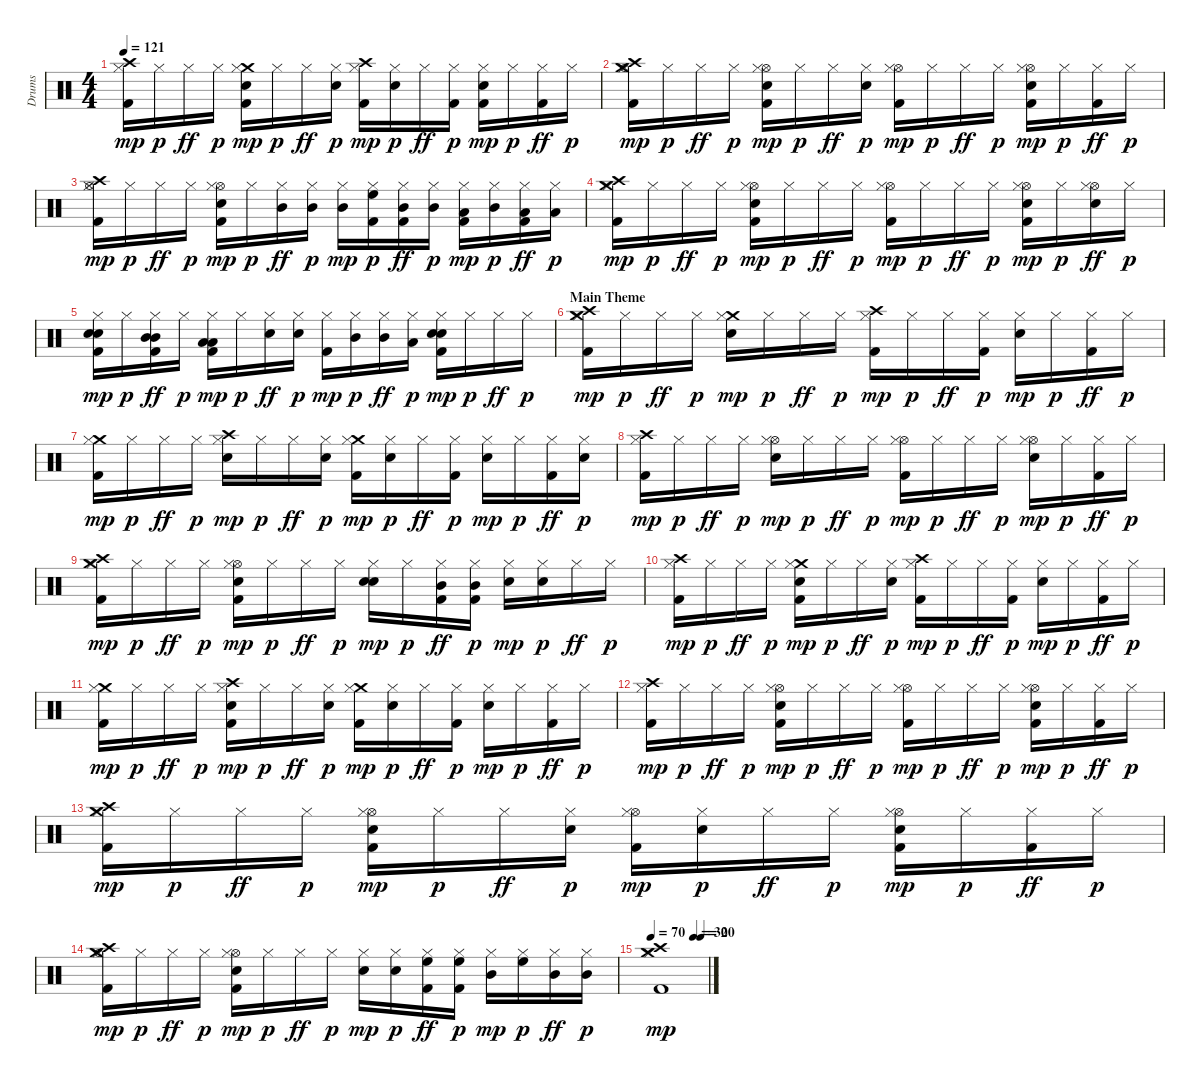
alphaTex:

\track ("Drums" "Drums") {instrument percussion}
\staff {score}
\articulation defaults
\ts (4 4)
\tempo 121
\clef neutral
\ks c
("Crash high (hit)" "Kick (hit) 2" "Hi-Hat (closed)").16{dy mp} "Hi-Hat (closed)".16{dy p} "Hi-Hat (closed)".16{dy ff} "Hi-Hat (closed)".16{dy p} ("Crash medium (hit)" "Kick (hit) 2" "Electric Snare (hit)" "Hi-Hat (closed)").16{dy mp} "Hi-Hat (closed)".16{dy p} "Hi-Hat (closed)".16{dy ff} ("Electric Snare (hit)" "Hi-Hat (closed)").16{dy p} ("Crash high (hit)" "Kick (hit) 2" "Hi-Hat (closed)").16{dy mp} ("Electric Snare (hit)" "Hi-Hat (closed)").16{dy p} "Hi-Hat (closed)".16{dy ff} ("Kick (hit) 2" "Hi-Hat (closed)").16{dy p} ("Kick (hit) 2" "Electric Snare (hit)" "Hi-Hat (closed)").16{dy mp} "Hi-Hat (closed)".16{dy p} ("Kick (hit) 2" "Hi-Hat (closed)").16{dy ff} "Hi-Hat (closed)".16{dy p} |
("Kick (hit) 2" "Hi-Hat (open)" "Crash high (hit)" "Crash medium (hit)" "Hi-Hat (closed)").16{dy mp} "Hi-Hat (closed)".16{dy p} "Hi-Hat (closed)".16{dy ff} "Hi-Hat (closed)".16{dy p} ("Hi-Hat (open)" "Kick (hit) 2" "Electric Snare (hit)" "Hi-Hat (closed)").16{dy mp} "Hi-Hat (closed)".16{dy p} "Hi-Hat (closed)".16{dy ff} ("Electric Snare (hit)" "Hi-Hat (closed)").16{dy p} ("Hi-Hat (open)" "Kick (hit) 2" "Hi-Hat (closed)").16{dy mp} "Hi-Hat (closed)".16{dy p} "Hi-Hat (closed)".16{dy ff} "Hi-Hat (closed)".16{dy p} ("Hi-Hat (open)" "Kick (hit) 2" "Electric Snare (hit)" "Hi-Hat (closed)").16{dy mp} "Hi-Hat (closed)".16{dy p} ("Kick (hit) 2" "Hi-Hat (closed)").16{dy ff} "Hi-Hat (closed)".16{dy p} |
("Hi-Hat (open)" "Kick (hit) 2" "Crash high (hit)" "Hi-Hat (closed)").16{dy mp} "Hi-Hat (closed)".16{dy p} "Hi-Hat (closed)".16{dy ff} "Hi-Hat (closed)".16{dy p} ("Hi-Hat (open)" "Kick (hit) 2" "Electric Snare (hit)" "Hi-Hat (closed)").16{dy mp} "Hi-Hat (closed)".16{dy p} ("Mid Tom (hit)" "Hi-Hat (closed)").16{dy ff} ("Mid Tom (hit)" "Hi-Hat (closed)").16{dy p} ("Mid Tom (hit)" "Hi-Hat (closed)").16{dy mp} ("High Floor Tom (hit)" "Kick (hit) 2" "Hi-Hat (closed)").16{dy p} ("Mid Tom (hit)" "Kick (hit) 2" "Hi-Hat (closed)").16{dy ff} ("Mid Tom (hit)" "Hi-Hat (closed)").16{dy p} ("Low Tom (hit)" "Kick (hit) 2" "Hi-Hat (closed)").16{dy mp} ("Mid Tom (hit)" "Hi-Hat (closed)").16{dy p} ("Low Tom (hit)" "Kick (hit) 2" "Hi-Hat (closed)").16{dy ff} ("Low Tom (hit)" "Hi-Hat (closed)").16{dy p} |
("Crash medium (hit)" "Crash high (hit)" "Kick (hit) 2" "Hi-Hat (closed)").16{dy mp} "Hi-Hat (closed)".16{dy p} "Hi-Hat (closed)".16{dy ff} "Hi-Hat (closed)".16{dy p} ("Kick (hit) 2" "Hi-Hat (open)" "Electric Snare (hit)" "Hi-Hat (closed)").16{dy mp} "Hi-Hat (closed)".16{dy p} "Hi-Hat (closed)".16{dy ff} "Hi-Hat (closed)".16{dy p} ("Kick (hit) 2" "Hi-Hat (open)" "Hi-Hat (closed)").16{dy mp} "Hi-Hat (closed)".16{dy p} "Hi-Hat (closed)".16{dy ff} "Hi-Hat (closed)".16{dy p} ("Kick (hit) 2" "Hi-Hat (open)" "Electric Snare (hit)" "Hi-Hat (closed)").16{dy mp} "Hi-Hat (closed)".16{dy p} ("Hi-Hat (open)" "Electric Snare (hit)" "Hi-Hat (closed)").16{dy ff} "Hi-Hat (closed)".16{dy p} |
("Electric Snare (hit)" "Kick (hit) 2" "Snare (hit) 2" "Hi-Hat (closed)").16{dy mp} "Hi-Hat (closed)".16{dy p} ("Mid Tom (hit)" "Mid Tom (hit)" "Kick (hit) 2" "Hi-Hat (closed)").16{dy ff} "Hi-Hat (closed)".16{dy p} ("Low Tom (hit)" "Low Tom (hit)" "Kick (hit) 2" "Hi-Hat (closed)").16{dy mp} "Hi-Hat (closed)".16{dy p} ("Snare (hit) 2" "Hi-Hat (closed)").16{dy ff} ("Snare (hit) 2" "Hi-Hat (closed)").16{dy p} ("Kick (hit) 2" "Hi-Hat (closed)").16{dy mp} ("Mid Tom (hit)" "Hi-Hat (closed)").16{dy p} ("Mid Tom (hit)" "Hi-Hat (closed)").16{dy ff} ("Low Tom (hit)" "Hi-Hat (closed)").16{dy p} ("Electric Snare (hit)" "Snare (hit) 2" "Kick (hit) 2" "Hi-Hat (closed)").16{dy mp} "Hi-Hat (closed)".16{dy p} "Hi-Hat (closed)".16{dy ff} "Hi-Hat (closed)".16{dy p} |
\section ("" "Main Theme")
("Kick (hit) 2" "Crash high (hit)" "Crash medium (hit)" "Hi-Hat (closed)").16{dy mp} "Hi-Hat (closed)".16{dy p} "Hi-Hat (closed)".16{dy ff} "Hi-Hat (closed)".16{dy p} ("Crash medium (hit)" "Snare (hit) 2" "Hi-Hat (closed)").16{dy mp} "Hi-Hat (closed)".16{dy p} "Hi-Hat (closed)".16{dy ff} "Hi-Hat (closed)".16{dy p} ("Crash high (hit)" "Kick (hit) 2" "Hi-Hat (closed)").16{dy mp} "Hi-Hat (closed)".16{dy p} "Hi-Hat (closed)".16{dy ff} ("Kick (hit) 2" "Hi-Hat (closed)").16{dy p} ("Electric Snare (hit)" "Hi-Hat (closed)").16{dy mp} "Hi-Hat (closed)".16{dy p} ("Kick (hit) 2" "Hi-Hat (closed)").16{dy ff} "Hi-Hat (closed)".16{dy p} |
("Crash medium (hit)" "Kick (hit) 2" "Hi-Hat (closed)").16{dy mp} "Hi-Hat (closed)".16{dy p} "Hi-Hat (closed)".16{dy ff} "Hi-Hat (closed)".16{dy p} ("Crash high (hit)" "Electric Snare (hit)" "Hi-Hat (closed)").16{dy mp} "Hi-Hat (closed)".16{dy p} "Hi-Hat (closed)".16{dy ff} ("Electric Snare (hit)" "Hi-Hat (closed)").16{dy p} ("Kick (hit) 2" "Crash medium (hit)" "Hi-Hat (closed)").16{dy mp} ("Electric Snare (hit)" "Hi-Hat (closed)").16{dy p} "Hi-Hat (closed)".16{dy ff} ("Kick (hit) 2" "Hi-Hat (closed)").16{dy p} ("Electric Snare (hit)" "Hi-Hat (closed)").16{dy mp} "Hi-Hat (closed)".16{dy p} ("Kick (hit) 2" "Hi-Hat (closed)").16{dy ff} ("Electric Snare (hit)" "Hi-Hat (closed)").16{dy p} |
("Crash high (hit)" "Kick (hit) 2" "Hi-Hat (closed)").16{dy mp} "Hi-Hat (closed)".16{dy p} "Hi-Hat (closed)".16{dy ff} "Hi-Hat (closed)".16{dy p} ("Hi-Hat (open)" "Electric Snare (hit)" "Hi-Hat (closed)").16{dy mp} "Hi-Hat (closed)".16{dy p} "Hi-Hat (closed)".16{dy ff} "Hi-Hat (closed)".16{dy p} ("Kick (hit) 2" "Hi-Hat (open)" "Hi-Hat (closed)").16{dy mp} "Hi-Hat (closed)".16{dy p} "Hi-Hat (closed)".16{dy ff} "Hi-Hat (closed)".16{dy p} ("Hi-Hat (open)" "Electric Snare (hit)" "Hi-Hat (closed)").16{dy mp} "Hi-Hat (closed)".16{dy p} ("Kick (hit) 2" "Hi-Hat (closed)").16{dy ff} "Hi-Hat (closed)".16{dy p} |
("Kick (hit) 2" "Crash high (hit)" "Crash medium (hit)" "Hi-Hat (closed)").16{dy mp} "Hi-Hat (closed)".16{dy p} "Hi-Hat (closed)".16{dy ff} "Hi-Hat (closed)".16{dy p} ("Hi-Hat (open)" "Electric Snare (hit)" "Kick (hit) 2" "Hi-Hat (closed)").16{dy mp} "Hi-Hat (closed)".16{dy p} "Hi-Hat (closed)".16{dy ff} "Hi-Hat (closed)".16{dy p} ("Snare (hit) 2" "Electric Snare (hit)" "Hi-Hat (closed)").16{dy mp} "Hi-Hat (closed)".16{dy p} ("Kick (hit) 2" "Mid Tom (hit)" "Hi-Hat (closed)").16{dy ff} ("Kick (hit) 2" "Mid Tom (hit)" "Hi-Hat (closed)").16{dy p} ("Electric Snare (hit)" "Hi-Hat (closed)").16{dy mp} ("Electric Snare (hit)" "Hi-Hat (closed)").16{dy p} "Hi-Hat (closed)".16{dy ff} "Hi-Hat (closed)".16{dy p} |
("Crash high (hit)" "Kick (hit) 2" "Hi-Hat (closed)").16{dy mp} "Hi-Hat (closed)".16{dy p} "Hi-Hat (closed)".16{dy ff} "Hi-Hat (closed)".16{dy p} ("Crash medium (hit)" "Electric Snare (hit)" "Kick (hit) 2" "Hi-Hat (closed)").16{dy mp} "Hi-Hat (closed)".16{dy p} "Hi-Hat (closed)".16{dy ff} ("Electric Snare (hit)" "Hi-Hat (closed)").16{dy p} ("Crash high (hit)" "Kick (hit) 2" "Hi-Hat (closed)").16{dy mp} "Hi-Hat (closed)".16{dy p} "Hi-Hat (closed)".16{dy ff} ("Kick (hit) 2" "Hi-Hat (closed)").16{dy p} ("Electric Snare (hit)" "Hi-Hat (closed)").16{dy mp} "Hi-Hat (closed)".16{dy p} ("Kick (hit) 2" "Hi-Hat (closed)").16{dy ff} "Hi-Hat (closed)".16{dy p} |
("Crash medium (hit)" "Kick (hit) 2" "Hi-Hat (closed)").16{dy mp} "Hi-Hat (closed)".16{dy p} "Hi-Hat (closed)".16{dy ff} "Hi-Hat (closed)".16{dy p} ("Crash high (hit)" "Electric Snare (hit)" "Kick (hit) 2" "Hi-Hat (closed)").16{dy mp} "Hi-Hat (closed)".16{dy p} "Hi-Hat (closed)".16{dy ff} ("Electric Snare (hit)" "Hi-Hat (closed)").16{dy p} ("Kick (hit) 2" "Crash medium (hit)" "Hi-Hat (closed)").16{dy mp} ("Electric Snare (hit)" "Hi-Hat (closed)").16{dy p} "Hi-Hat (closed)".16{dy ff} ("Kick (hit) 2" "Hi-Hat (closed)").16{dy p} ("Electric Snare (hit)" "Hi-Hat (closed)").16{dy mp} "Hi-Hat (closed)".16{dy p} ("Kick (hit) 2" "Hi-Hat (closed)").16{dy ff} "Hi-Hat (closed)".16{dy p} |
("Crash high (hit)" "Kick (hit) 2" "Hi-Hat (closed)").16{dy mp} "Hi-Hat (closed)".16{dy p} "Hi-Hat (closed)".16{dy ff} "Hi-Hat (closed)".16{dy p} ("Hi-Hat (open)" "Electric Snare (hit)" "Kick (hit) 2" "Hi-Hat (closed)").16{dy mp} "Hi-Hat (closed)".16{dy p} "Hi-Hat (closed)".16{dy ff} "Hi-Hat (closed)".16{dy p} ("Kick (hit) 2" "Hi-Hat (open)" "Hi-Hat (closed)").16{dy mp} "Hi-Hat (closed)".16{dy p} "Hi-Hat (closed)".16{dy ff} "Hi-Hat (closed)".16{dy p} ("Hi-Hat (open)" "Electric Snare (hit)" "Kick (hit) 2" "Hi-Hat (closed)").16{dy mp} "Hi-Hat (closed)".16{dy p} ("Kick (hit) 2" "Hi-Hat (closed)").16{dy ff} "Hi-Hat (closed)".16{dy p} |
("Kick (hit) 2" "Crash high (hit)" "Crash medium (hit)" "Hi-Hat (closed)").16{dy mp} "Hi-Hat (closed)".16{dy p} "Hi-Hat (closed)".16{dy ff} "Hi-Hat (closed)".16{dy p} ("Hi-Hat (open)" "Electric Snare (hit)" "Kick (hit) 2" "Hi-Hat (closed)").16{dy mp} "Hi-Hat (closed)".16{dy p} "Hi-Hat (closed)".16{dy ff} ("Electric Snare (hit)" "Hi-Hat (closed)").16{dy p} ("Hi-Hat (open)" "Kick (hit) 2" "Hi-Hat (closed)").16{dy mp} ("Electric Snare (hit)" "Hi-Hat (closed)").16{dy p} "Hi-Hat (closed)".16{dy ff} "Hi-Hat (closed)".16{dy p} ("Hi-Hat (open)" "Electric Snare (hit)" "Kick (hit) 2" "Hi-Hat (closed)").16{dy mp} "Hi-Hat (closed)".16{dy p} ("Kick (hit) 2" "Hi-Hat (closed)").16{dy ff} "Hi-Hat (closed)".16{dy p} |
("Kick (hit) 2" "Crash high (hit)" "Crash medium (hit)" "Hi-Hat (open)" "Hi-Hat (closed)").16{dy mp} "Hi-Hat (closed)".16{dy p} "Hi-Hat (closed)".16{dy ff} "Hi-Hat (closed)".16{dy p} ("Hi-Hat (open)" "Electric Snare (hit)" "Kick (hit) 2" "Hi-Hat (closed)").16{dy mp} "Hi-Hat (closed)".16{dy p} "Hi-Hat (closed)".16{dy ff} "Hi-Hat (closed)".16{dy p} ("Snare (hit) 2" "Hi-Hat (closed)").16{dy mp} ("Electric Snare (hit)" "Hi-Hat (closed)").16{dy p} ("Kick (hit) 2" "High Floor Tom (hit)" "Hi-Hat (closed)").16{dy ff} ("Kick (hit) 2" "High Floor Tom (hit)" "Hi-Hat (closed)").16{dy p} ("Mid Tom (hit)" "Hi-Hat (closed)").16{dy mp} ("High Floor Tom (hit)" "Hi-Hat (closed)").16{dy p} ("Mid Tom (hit)" "Hi-Hat (closed)").16{dy ff} ("Mid Tom (hit)" "Hi-Hat (closed)").16{dy p} |
\tempo 70
\tempo (30 0.75)
\tempo (20 0.875)
("Crash high (hit)" "Crash medium (hit)" "Kick (hit) 2" "Hi-Hat (closed)").1{dy mp}
